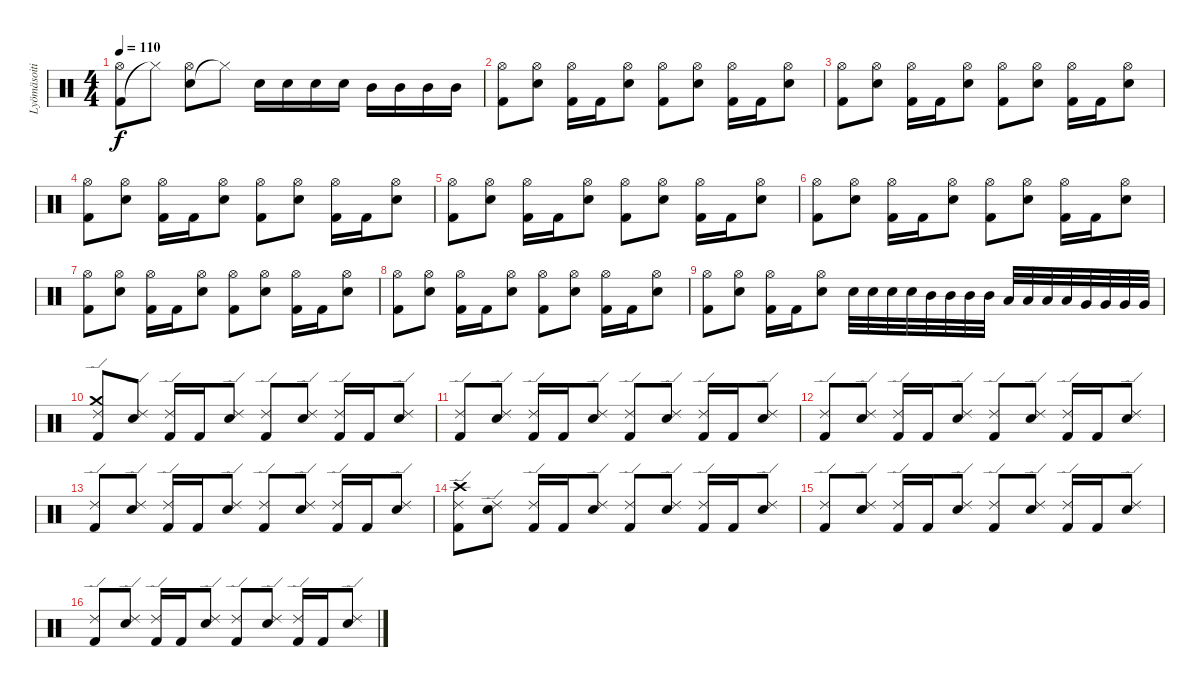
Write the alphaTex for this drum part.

\track ("Lyömäsoitin" "Lyömäsoiti") {instrument percussion}
\staff {score}
\articulation defaults
\ts (4 4)
\tempo 110
\clef neutral
\ks c
("Kick (hit) 2" "Hi-Hat (open)").8{dy f} "Hi-Hat (closed)"{t}.8 ("Electric Snare (hit)" "Hi-Hat (open)").8 "Hi-Hat (closed)"{t}.8 "Electric Snare (hit)".16 "Electric Snare (hit)".16 "Electric Snare (hit)".16 "Electric Snare (hit)".16 "Mid Tom (hit)".16 "Mid Tom (hit)".16 "Mid Tom (hit)".16 "Mid Tom (hit)".16 |
("Kick (hit) 2" "Hi-Hat (open)").8 ("Electric Snare (hit)" "Hi-Hat (open)").8 ("Kick (hit) 2" "Hi-Hat (open)").16 "Kick (hit) 2".16 ("Electric Snare (hit)" "Hi-Hat (open)").8 ("Kick (hit) 2" "Hi-Hat (open)").8 ("Electric Snare (hit)" "Hi-Hat (open)").8 ("Kick (hit) 2" "Hi-Hat (open)").16 "Kick (hit) 2".16 ("Electric Snare (hit)" "Hi-Hat (open)").8 |
("Kick (hit) 2" "Hi-Hat (open)").8 ("Electric Snare (hit)" "Hi-Hat (open)").8 ("Kick (hit) 2" "Hi-Hat (open)").16 "Kick (hit) 2".16 ("Electric Snare (hit)" "Hi-Hat (open)").8 ("Kick (hit) 2" "Hi-Hat (open)").8 ("Electric Snare (hit)" "Hi-Hat (open)").8 ("Kick (hit) 2" "Hi-Hat (open)").16 "Kick (hit) 2".16 ("Electric Snare (hit)" "Hi-Hat (open)").8 |
("Kick (hit) 2" "Hi-Hat (open)").8 ("Electric Snare (hit)" "Hi-Hat (open)").8 ("Kick (hit) 2" "Hi-Hat (open)").16 "Kick (hit) 2".16 ("Electric Snare (hit)" "Hi-Hat (open)").8 ("Kick (hit) 2" "Hi-Hat (open)").8 ("Electric Snare (hit)" "Hi-Hat (open)").8 ("Kick (hit) 2" "Hi-Hat (open)").16 "Kick (hit) 2".16 ("Electric Snare (hit)" "Hi-Hat (open)").8 |
("Kick (hit) 2" "Hi-Hat (open)").8 ("Electric Snare (hit)" "Hi-Hat (open)").8 ("Kick (hit) 2" "Hi-Hat (open)").16 "Kick (hit) 2".16 ("Electric Snare (hit)" "Hi-Hat (open)").8 ("Kick (hit) 2" "Hi-Hat (open)").8 ("Electric Snare (hit)" "Hi-Hat (open)").8 ("Kick (hit) 2" "Hi-Hat (open)").16 "Kick (hit) 2".16 ("Electric Snare (hit)" "Hi-Hat (open)").8 |
("Kick (hit) 2" "Hi-Hat (open)").8 ("Electric Snare (hit)" "Hi-Hat (open)").8 ("Kick (hit) 2" "Hi-Hat (open)").16 "Kick (hit) 2".16 ("Electric Snare (hit)" "Hi-Hat (open)").8 ("Kick (hit) 2" "Hi-Hat (open)").8 ("Electric Snare (hit)" "Hi-Hat (open)").8 ("Kick (hit) 2" "Hi-Hat (open)").16 "Kick (hit) 2".16 ("Electric Snare (hit)" "Hi-Hat (open)").8 |
("Kick (hit) 2" "Hi-Hat (open)").8 ("Electric Snare (hit)" "Hi-Hat (open)").8 ("Kick (hit) 2" "Hi-Hat (open)").16 "Kick (hit) 2".16 ("Electric Snare (hit)" "Hi-Hat (open)").8 ("Kick (hit) 2" "Hi-Hat (open)").8 ("Electric Snare (hit)" "Hi-Hat (open)").8 ("Kick (hit) 2" "Hi-Hat (open)").16 "Kick (hit) 2".16 ("Electric Snare (hit)" "Hi-Hat (open)").8 |
("Kick (hit) 2" "Hi-Hat (open)").8 ("Electric Snare (hit)" "Hi-Hat (open)").8 ("Kick (hit) 2" "Hi-Hat (open)").16 "Kick (hit) 2".16 ("Electric Snare (hit)" "Hi-Hat (open)").8 ("Kick (hit) 2" "Hi-Hat (open)").8 ("Electric Snare (hit)" "Hi-Hat (open)").8 ("Kick (hit) 2" "Hi-Hat (open)").16 "Kick (hit) 2".16 ("Electric Snare (hit)" "Hi-Hat (open)").8 |
("Kick (hit) 2" "Hi-Hat (open)").8 ("Electric Snare (hit)" "Hi-Hat (open)").8 ("Kick (hit) 2" "Hi-Hat (open)").16 "Kick (hit) 2".16 ("Electric Snare (hit)" "Hi-Hat (open)").8 "Electric Snare (hit)".32 "Electric Snare (hit)".32 "Electric Snare (hit)".32 "Electric Snare (hit)".32 "Mid Tom (hit)".32 "Mid Tom (hit)".32 "Mid Tom (hit)".32 "Mid Tom (hit)".32 "Low Tom (hit)".32 "Low Tom (hit)".32 "Low Tom (hit)".32 "Low Tom (hit)".32 "Very Low Tom (hit)".32 "Very Low Tom (hit)".32 "Very Low Tom (hit)".32 "Very Low Tom (hit)".32 |
("Crash medium (hit)" "Kick (hit) 2" "Ride (edge) 2").8 ("Electric Snare (hit)" "Ride (edge) 2").8 ("Kick (hit) 2" "Ride (edge) 2").16 "Kick (hit) 2".16 ("Electric Snare (hit)" "Ride (edge) 2").8 ("Kick (hit) 2" "Ride (edge) 2").8 ("Electric Snare (hit)" "Ride (edge) 2").8 ("Kick (hit) 2" "Ride (edge) 2").16 "Kick (hit) 2".16 ("Electric Snare (hit)" "Ride (edge) 2").8 |
("Kick (hit) 2" "Ride (edge) 2").8 ("Electric Snare (hit)" "Ride (edge) 2").8 ("Kick (hit) 2" "Ride (edge) 2").16 "Kick (hit) 2".16 ("Electric Snare (hit)" "Ride (edge) 2").8 ("Kick (hit) 2" "Ride (edge) 2").8 ("Electric Snare (hit)" "Ride (edge) 2").8 ("Kick (hit) 2" "Ride (edge) 2").16 "Kick (hit) 2".16 ("Electric Snare (hit)" "Ride (edge) 2").8 |
("Kick (hit) 2" "Ride (edge) 2").8 ("Electric Snare (hit)" "Ride (edge) 2").8 ("Kick (hit) 2" "Ride (edge) 2").16 "Kick (hit) 2".16 ("Electric Snare (hit)" "Ride (edge) 2").8 ("Kick (hit) 2" "Ride (edge) 2").8 ("Electric Snare (hit)" "Ride (edge) 2").8 ("Kick (hit) 2" "Ride (edge) 2").16 "Kick (hit) 2".16 ("Electric Snare (hit)" "Ride (edge) 2").8 |
("Kick (hit) 2" "Ride (edge) 2").8 ("Electric Snare (hit)" "Ride (edge) 2").8 ("Kick (hit) 2" "Ride (edge) 2").16 "Kick (hit) 2".16 ("Electric Snare (hit)" "Ride (edge) 2").8 ("Kick (hit) 2" "Ride (edge) 2").8 ("Electric Snare (hit)" "Ride (edge) 2").8 ("Kick (hit) 2" "Ride (edge) 2").16 "Kick (hit) 2".16 ("Electric Snare (hit)" "Ride (edge) 2").8 |
("Crash high (hit)" "Kick (hit) 2" "Ride (edge) 2").8 ("Electric Snare (hit)" "Ride (edge) 2").8 ("Kick (hit) 2" "Ride (edge) 2").16 "Kick (hit) 2".16 ("Electric Snare (hit)" "Ride (edge) 2").8 ("Kick (hit) 2" "Ride (edge) 2").8 ("Electric Snare (hit)" "Ride (edge) 2").8 ("Kick (hit) 2" "Ride (edge) 2").16 "Kick (hit) 2".16 ("Electric Snare (hit)" "Ride (edge) 2").8 |
("Kick (hit) 2" "Ride (edge) 2").8 ("Electric Snare (hit)" "Ride (edge) 2").8 ("Kick (hit) 2" "Ride (edge) 2").16 "Kick (hit) 2".16 ("Electric Snare (hit)" "Ride (edge) 2").8 ("Kick (hit) 2" "Ride (edge) 2").8 ("Electric Snare (hit)" "Ride (edge) 2").8 ("Kick (hit) 2" "Ride (edge) 2").16 "Kick (hit) 2".16 ("Electric Snare (hit)" "Ride (edge) 2").8 |
("Kick (hit) 2" "Ride (edge) 2").8 ("Electric Snare (hit)" "Ride (edge) 2").8 ("Kick (hit) 2" "Ride (edge) 2").16 "Kick (hit) 2".16 ("Electric Snare (hit)" "Ride (edge) 2").8 ("Kick (hit) 2" "Ride (edge) 2").8 ("Electric Snare (hit)" "Ride (edge) 2").8 ("Kick (hit) 2" "Ride (edge) 2").16 "Kick (hit) 2".16 ("Electric Snare (hit)" "Ride (edge) 2").8
